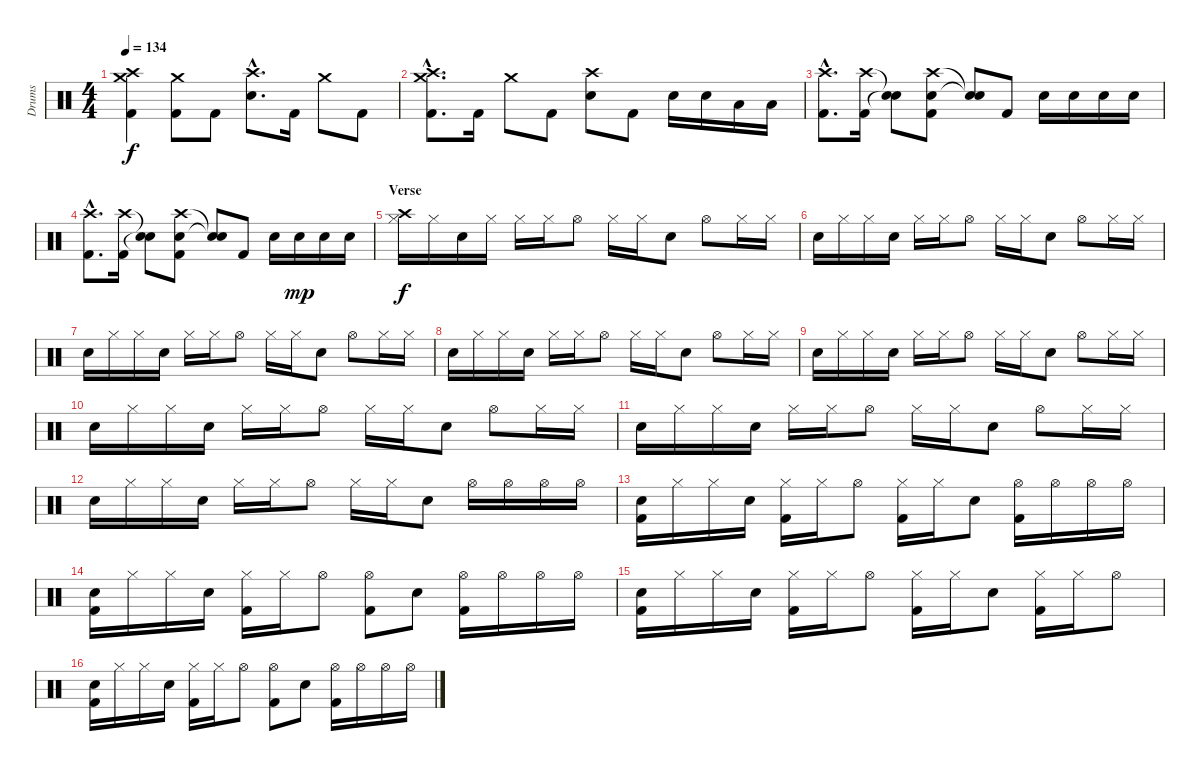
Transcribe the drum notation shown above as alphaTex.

\track ("Drums" "Drums") {instrument percussion}
\staff {score}
\articulation defaults
\ts (4 4)
\tempo 134
\clef neutral
\ks c
("Crash high (hit)" "Crash medium (hit)" "Kick (hit) 2").4{dy f} ("Crash medium (hit)" "Kick (hit) 2").8 "Kick (hit) 2".8 ("Crash high (hit)"{hac} "Electric Snare (hit)"{hac}).8{d} "Kick (hit) 2".16 "Crash medium (hit)".8 "Kick (hit) 2".8 |
("Crash high (hit)"{hac} "Crash medium (hit)"{hac} "Kick (hit) 2"{hac}).8{d} "Kick (hit) 2".16 "Crash medium (hit)".8 "Kick (hit) 2".8 ("Crash high (hit)" "Electric Snare (hit)").8 "Kick (hit) 2".8 "Electric Snare (hit)".16 "Electric Snare (hit)".16 "Low Tom (hit)".16 "Low Tom (hit)".16 |
("Crash high (hit)"{hac} "Kick (hit) 2"{hac}).8{d} ("Crash high (hit)" "Kick (hit) 2").16 ("Snare (hit)"{t} "Snare (hit)"{t}).8 ("Crash high (hit)" "Electric Snare (hit)" "Kick (hit) 2").8 ("Snare (hit)"{t} "Snare (hit)"{t}).8 "Kick (hit) 2".8 "Electric Snare (hit)".16 "Electric Snare (hit)".16 "Electric Snare (hit)".16 "Electric Snare (hit)".16 |
("Crash high (hit)"{hac} "Kick (hit) 2"{hac}).8{d} ("Crash high (hit)" "Kick (hit) 2").16 ("Snare (hit)"{t} "Snare (hit)"{t}).8 ("Crash high (hit)" "Electric Snare (hit)" "Kick (hit) 2").8 ("Snare (hit)"{t} "Snare (hit)"{t}).8 "Kick (hit) 2".8 "Electric Snare (hit)".16 "Electric Snare (hit)".16{dy mp} "Electric Snare (hit)".16 "Electric Snare (hit)".16 |
\section ("" "Verse")
("Crash high (hit)" "Hi-Hat (closed)").16{dy f} "Hi-Hat (closed)".16 "Electric Snare (hit)".16 "Hi-Hat (closed)".16 "Hi-Hat (closed)".16 "Hi-Hat (closed)".16 "Hi-Hat (open)".8 "Hi-Hat (closed)".16 "Hi-Hat (closed)".16 "Electric Snare (hit)".8 "Hi-Hat (open)".8 "Hi-Hat (closed)".16 "Hi-Hat (closed)".16 |
"Electric Snare (hit)".16 "Hi-Hat (closed)".16 "Hi-Hat (closed)".16 "Electric Snare (hit)".16 "Hi-Hat (closed)".16 "Hi-Hat (closed)".16 "Hi-Hat (open)".8 "Hi-Hat (closed)".16 "Hi-Hat (closed)".16 "Electric Snare (hit)".8 "Hi-Hat (open)".8 "Hi-Hat (closed)".16 "Hi-Hat (closed)".16 |
"Electric Snare (hit)".16 "Hi-Hat (closed)".16 "Hi-Hat (closed)".16 "Electric Snare (hit)".16 "Hi-Hat (closed)".16 "Hi-Hat (closed)".16 "Hi-Hat (open)".8 "Hi-Hat (closed)".16 "Hi-Hat (closed)".16 "Electric Snare (hit)".8 "Hi-Hat (open)".8 "Hi-Hat (closed)".16 "Hi-Hat (closed)".16 |
"Electric Snare (hit)".16 "Hi-Hat (closed)".16 "Hi-Hat (closed)".16 "Electric Snare (hit)".16 "Hi-Hat (closed)".16 "Hi-Hat (closed)".16 "Hi-Hat (open)".8 "Hi-Hat (closed)".16 "Hi-Hat (closed)".16 "Electric Snare (hit)".8 "Hi-Hat (open)".8 "Hi-Hat (closed)".16 "Hi-Hat (closed)".16 |
"Electric Snare (hit)".16 "Hi-Hat (closed)".16 "Hi-Hat (closed)".16 "Electric Snare (hit)".16 "Hi-Hat (closed)".16 "Hi-Hat (closed)".16 "Hi-Hat (open)".8 "Hi-Hat (closed)".16 "Hi-Hat (closed)".16 "Electric Snare (hit)".8 "Hi-Hat (open)".8 "Hi-Hat (closed)".16 "Hi-Hat (closed)".16 |
"Electric Snare (hit)".16 "Hi-Hat (closed)".16 "Hi-Hat (closed)".16 "Electric Snare (hit)".16 "Hi-Hat (closed)".16 "Hi-Hat (closed)".16 "Hi-Hat (open)".8 "Hi-Hat (closed)".16 "Hi-Hat (closed)".16 "Electric Snare (hit)".8 "Hi-Hat (open)".8 "Hi-Hat (closed)".16 "Hi-Hat (closed)".16 |
"Electric Snare (hit)".16 "Hi-Hat (closed)".16 "Hi-Hat (closed)".16 "Electric Snare (hit)".16 "Hi-Hat (closed)".16 "Hi-Hat (closed)".16 "Hi-Hat (open)".8 "Hi-Hat (closed)".16 "Hi-Hat (closed)".16 "Electric Snare (hit)".8 "Hi-Hat (open)".8 "Hi-Hat (closed)".16 "Hi-Hat (closed)".16 |
"Electric Snare (hit)".16 "Hi-Hat (closed)".16 "Hi-Hat (closed)".16 "Electric Snare (hit)".16 "Hi-Hat (closed)".16 "Hi-Hat (closed)".16 "Hi-Hat (open)".8 "Hi-Hat (closed)".16 "Hi-Hat (closed)".16 "Electric Snare (hit)".8 "Hi-Hat (open)".16 "Hi-Hat (open)".16 "Hi-Hat (open)".16 "Hi-Hat (open)".16 |
("Electric Snare (hit)" "Kick (hit) 2").16 "Hi-Hat (closed)".16 "Hi-Hat (closed)".16 "Electric Snare (hit)".16 ("Hi-Hat (closed)" "Kick (hit) 2").16 "Hi-Hat (closed)".16 "Hi-Hat (open)".8 ("Hi-Hat (closed)" "Kick (hit) 2").16 "Hi-Hat (closed)".16 "Electric Snare (hit)".8 ("Hi-Hat (open)" "Kick (hit) 2").16 "Hi-Hat (open)".16 "Hi-Hat (open)".16 "Hi-Hat (open)".16 |
("Electric Snare (hit)" "Kick (hit) 2").16 "Hi-Hat (closed)".16 "Hi-Hat (closed)".16 "Electric Snare (hit)".16 ("Hi-Hat (closed)" "Kick (hit) 2").16 "Hi-Hat (closed)".16 "Hi-Hat (open)".8 ("Hi-Hat (open)" "Kick (hit) 2").8 "Electric Snare (hit)".8 ("Hi-Hat (open)" "Kick (hit) 2").16 "Hi-Hat (open)".16 "Hi-Hat (open)".16 "Hi-Hat (open)".16 |
("Electric Snare (hit)" "Kick (hit) 2").16 "Hi-Hat (closed)".16 "Hi-Hat (closed)".16 "Electric Snare (hit)".16 ("Hi-Hat (closed)" "Kick (hit) 2").16 "Hi-Hat (closed)".16 "Hi-Hat (open)".8 ("Hi-Hat (closed)" "Kick (hit) 2").16 "Hi-Hat (closed)".16 "Electric Snare (hit)".8 ("Hi-Hat (closed)" "Kick (hit) 2").16 "Hi-Hat (closed)".16 "Hi-Hat (open)".8 |
("Electric Snare (hit)" "Kick (hit) 2").16 "Hi-Hat (closed)".16 "Hi-Hat (closed)".16 "Electric Snare (hit)".16 ("Hi-Hat (closed)" "Kick (hit) 2").16 "Hi-Hat (closed)".16 "Hi-Hat (open)".8 ("Hi-Hat (open)" "Kick (hit) 2").8 "Electric Snare (hit)".8 ("Hi-Hat (open)" "Kick (hit) 2").16 "Hi-Hat (open)".16 "Hi-Hat (open)".16 "Hi-Hat (open)".16
